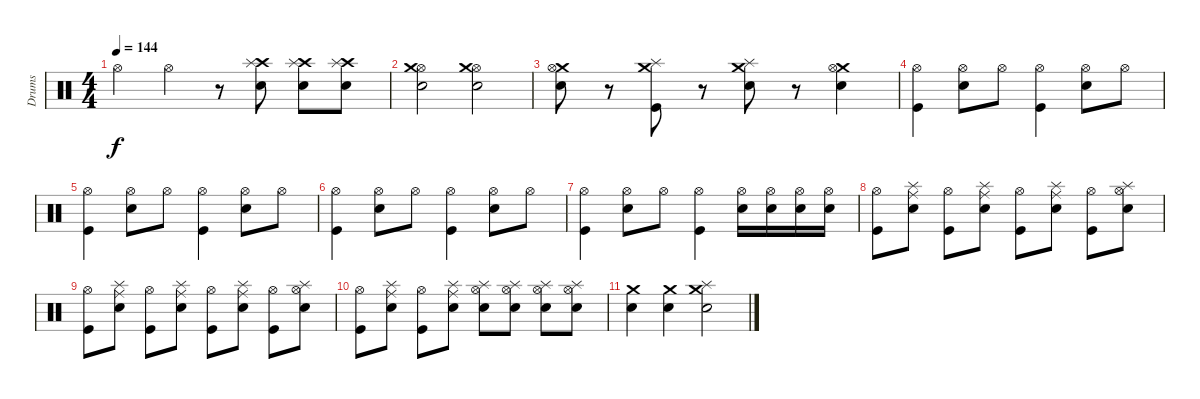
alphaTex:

\track ("Drums" "Drums") {instrument percussion}
\staff {score}
\articulation defaults
\ts (4 4)
\tempo 144
\clef neutral
\ks c "Hi-Hat (open)".4{dy f} "Hi-Hat (open)".4
r.8 ("Snare (hit) 2" "Crash high (hit)" "Splash (hit)").8 ("Snare (hit) 2" "Crash high (hit)" "Splash (hit)").8 ("Snare (hit) 2" "Crash high (hit)" "Splash (hit)").8 |
("Snare (hit) 2" "Hi-Hat (open)" "Crash medium (hit)").2 ("Snare (hit) 2" "Hi-Hat (open)" "Crash medium (hit)").2 |
("Snare (hit) 2" "Crash medium (hit)" "Hi-Hat (open)").8 r.8 ("Crash medium (hit)" "Splash (hit)" "Kick (hit)").8 r.8 ("Crash medium (hit)" "Splash (hit)" "Snare (hit) 2").8 r.8 ("Snare (hit) 2" "Crash medium (hit)" "Hi-Hat (open)").4 |
("Kick (hit)" "Hi-Hat (open)").4 ("Snare (hit) 2" "Hi-Hat (open)").8 "Hi-Hat (open)".8 ("Kick (hit)" "Hi-Hat (open)").4 ("Snare (hit) 2" "Hi-Hat (open)").8 "Hi-Hat (open)".8 |
("Kick (hit)" "Hi-Hat (open)").4 ("Snare (hit) 2" "Hi-Hat (open)").8 "Hi-Hat (open)".8 ("Kick (hit)" "Hi-Hat (open)").4 ("Snare (hit) 2" "Hi-Hat (open)").8 "Hi-Hat (open)".8 |
("Kick (hit)" "Hi-Hat (open)").4 ("Snare (hit) 2" "Hi-Hat (open)").8 "Hi-Hat (open)".8 ("Kick (hit)" "Hi-Hat (open)").4 ("Snare (hit) 2" "Hi-Hat (open)").8 "Hi-Hat (open)".8 |
("Kick (hit)" "Hi-Hat (open)").4 ("Snare (hit) 2" "Hi-Hat (open)").8 "Hi-Hat (open)".8 ("Kick (hit)" "Hi-Hat (open)").4 ("Snare (hit) 2" "Hi-Hat (open)").16 ("Snare (hit) 2" "Hi-Hat (open)").16 ("Snare (hit) 2" "Hi-Hat (open)").16 ("Snare (hit) 2" "Hi-Hat (open)").16 |
("Kick (hit)" "Hi-Hat (open)").8 ("Snare (hit) 2" "Ride (middle)" "Splash (hit)").8 ("Kick (hit)" "Hi-Hat (open)").8 ("Snare (hit) 2" "Ride (middle)" "Splash (hit)").8 ("Kick (hit)" "Hi-Hat (open)").8 ("Snare (hit) 2" "Ride (middle)" "Splash (hit)").8 ("Kick (hit)" "Hi-Hat (open)").8 ("Snare (hit) 2" "Hi-Hat (open)" "Splash (hit)").8 |
("Kick (hit)" "Hi-Hat (open)").8 ("Snare (hit) 2" "Ride (middle)" "Splash (hit)").8 ("Kick (hit)" "Hi-Hat (open)").8 ("Snare (hit) 2" "Ride (middle)" "Splash (hit)").8 ("Kick (hit)" "Hi-Hat (open)").8 ("Snare (hit) 2" "Ride (middle)" "Splash (hit)").8 ("Kick (hit)" "Hi-Hat (open)").8 ("Snare (hit) 2" "Hi-Hat (open)" "Splash (hit)").8 |
("Kick (hit)" "Hi-Hat (open)").8 ("Snare (hit) 2" "Ride (middle)" "Splash (hit)").8 ("Kick (hit)" "Hi-Hat (open)").8 ("Snare (hit) 2" "Ride (middle)" "Splash (hit)").8 ("Snare (hit) 2" "Hi-Hat (open)" "Splash (hit)").8 ("Snare (hit) 2" "Hi-Hat (open)" "Splash (hit)").8 ("Snare (hit) 2" "Hi-Hat (open)" "Splash (hit)").8 ("Snare (hit) 2" "Hi-Hat (open)" "Splash (hit)").8 |
("Snare (hit) 2" "Crash medium (hit)").4 ("Snare (hit) 2" "Crash medium (hit)").4 ("Snare (hit) 2" "Crash medium (hit)" "Splash (hit)").2
